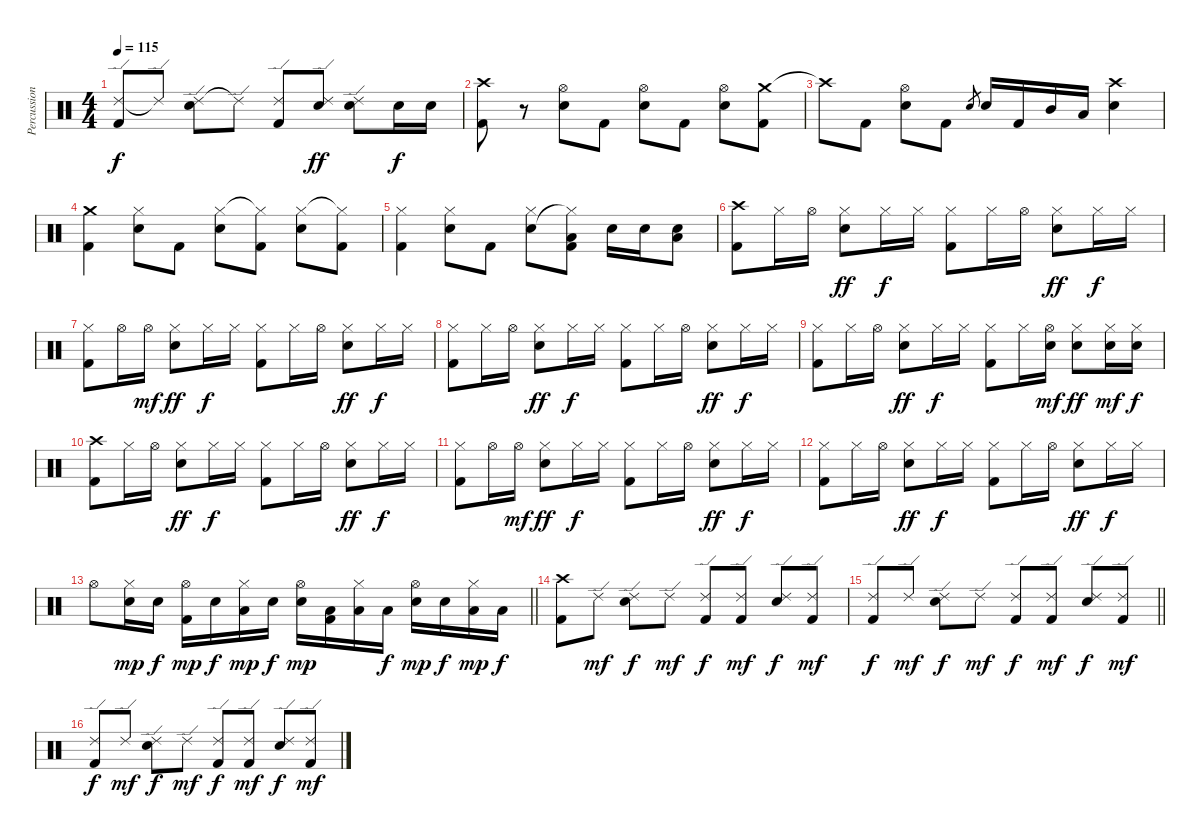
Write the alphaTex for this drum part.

\track ("Percussion" "Percussion") {instrument percussion}
\staff {score}
\articulation defaults
\ts (4 4)
\tempo 115
\clef neutral
\ks c
("Ride (edge) 2" "Kick (hit) 2").8{dy f} "Ride (edge) 2"{t}.8 ("Ride (edge) 2" "Electric Snare (hit)").8 "Ride (edge) 2"{t}.8 ("Ride (edge) 2" "Kick (hit) 2").8 ("Ride (edge) 2" "Electric Snare (hit)").8{dy ff} ("Ride (edge) 2" "Electric Snare (hit)").8 "Electric Snare (hit)".16{dy f} "Electric Snare (hit)".16 |
("Crash high (hit)" "Kick (hit) 2").8 r.8 ("Hi-Hat (open)" "Electric Snare (hit)").8 "Kick (hit) 2".8 ("Hi-Hat (open)" "Electric Snare (hit)").8 "Kick (hit) 2".8 ("Hi-Hat (open)" "Electric Snare (hit)").8 ("Crash medium (hit)" "Kick (hit) 2").8 |
"Crash high (hit)"{t}.8 "Kick (hit) 2".8 ("Hi-Hat (open)" "Electric Snare (hit)").8 "Kick (hit) 2".8 "Electric Snare (hit)".8{gr} "Electric Snare (hit)".16 "Kick (hit) 2".16 "Mid Tom (hit)".16 "Low Floor Tom (hit)".16 ("Crash high (hit)" "Electric Snare (hit)").4 |
("Crash medium (hit)" "Kick (hit) 2").4 ("Hi-Hat (closed)" "Electric Snare (hit)").8 "Kick (hit) 2".8 ("Hi-Hat (closed)" "Electric Snare (hit)").8 ("Hi-Hat (closed)"{t} "Kick (hit) 2").8 ("Hi-Hat (closed)" "Electric Snare (hit)").8 ("Hi-Hat (closed)"{t} "Kick (hit) 2").8 |
("Hi-Hat (closed)" "Kick (hit) 2").4 ("Hi-Hat (closed)" "Electric Snare (hit)").8 "Kick (hit) 2".8 ("Hi-Hat (closed)" "Electric Snare (hit)").8 ("Low Tom (hit)" "Hi-Hat (closed)"{t} "Kick (hit) 2").8 "Electric Snare (hit)".16 "Electric Snare (hit)".16 ("Low Tom (hit)" "Electric Snare (hit)").8 |
("Crash high (hit)" "Kick (hit) 2").8 "Hi-Hat (closed)".16 "Hi-Hat (open)".16 ("Hi-Hat (closed)" "Electric Snare (hit)").8{dy ff} "Hi-Hat (closed)".16{dy f} "Hi-Hat (closed)".16 ("Hi-Hat (closed)" "Kick (hit) 2").8 "Hi-Hat (closed)".16 "Hi-Hat (open)".16 ("Hi-Hat (closed)" "Electric Snare (hit)").8{dy ff} "Hi-Hat (closed)".16{dy f} "Hi-Hat (closed)".16 |
("Hi-Hat (closed)" "Kick (hit) 2").8 "Hi-Hat (open)".16 "Hi-Hat (open)".16{dy mf} ("Hi-Hat (closed)" "Electric Snare (hit)").8{dy ff} "Hi-Hat (closed)".16{dy f} "Hi-Hat (closed)".16 ("Hi-Hat (closed)" "Kick (hit) 2").8 "Hi-Hat (closed)".16 "Hi-Hat (open)".16 ("Hi-Hat (closed)" "Electric Snare (hit)").8{dy ff} "Hi-Hat (closed)".16{dy f} "Hi-Hat (closed)".16 |
("Hi-Hat (closed)" "Kick (hit) 2").8 "Hi-Hat (closed)".16 "Hi-Hat (open)".16 ("Hi-Hat (closed)" "Electric Snare (hit)").8{dy ff} "Hi-Hat (closed)".16{dy f} "Hi-Hat (closed)".16 ("Hi-Hat (closed)" "Kick (hit) 2").8 "Hi-Hat (closed)".16 "Hi-Hat (open)".16 ("Hi-Hat (closed)" "Electric Snare (hit)").8{dy ff} "Hi-Hat (closed)".16{dy f} "Hi-Hat (closed)".16 |
("Hi-Hat (closed)" "Kick (hit) 2").8 "Hi-Hat (closed)".16 "Hi-Hat (open)".16 ("Hi-Hat (closed)" "Electric Snare (hit)").8{dy ff} "Hi-Hat (closed)".16{dy f} "Hi-Hat (closed)".16 ("Hi-Hat (closed)" "Kick (hit) 2").8 "Hi-Hat (closed)".16 ("Hi-Hat (open)" "Electric Snare (hit)").16{dy mf} ("Hi-Hat (closed)" "Electric Snare (hit)").8{dy ff} ("Hi-Hat (closed)" "Electric Snare (hit)").16{dy mf} ("Hi-Hat (closed)" "Electric Snare (hit)").16{dy f} |
("Crash high (hit)" "Kick (hit) 2").8 "Hi-Hat (closed)".16 "Hi-Hat (open)".16 ("Hi-Hat (closed)" "Electric Snare (hit)").8{dy ff} "Hi-Hat (closed)".16{dy f} "Hi-Hat (closed)".16 ("Hi-Hat (closed)" "Kick (hit) 2").8 "Hi-Hat (closed)".16 "Hi-Hat (open)".16 ("Hi-Hat (closed)" "Electric Snare (hit)").8{dy ff} "Hi-Hat (closed)".16{dy f} "Hi-Hat (closed)".16 |
("Hi-Hat (closed)" "Kick (hit) 2").8 "Hi-Hat (open)".16 "Hi-Hat (open)".16{dy mf} ("Hi-Hat (closed)" "Electric Snare (hit)").8{dy ff} "Hi-Hat (closed)".16{dy f} "Hi-Hat (closed)".16 ("Hi-Hat (closed)" "Kick (hit) 2").8 "Hi-Hat (closed)".16 "Hi-Hat (open)".16 ("Hi-Hat (closed)" "Electric Snare (hit)").8{dy ff} "Hi-Hat (closed)".16{dy f} "Hi-Hat (closed)".16 |
("Hi-Hat (closed)" "Kick (hit) 2").8 "Hi-Hat (closed)".16 "Hi-Hat (open)".16 ("Hi-Hat (closed)" "Electric Snare (hit)").8{dy ff} "Hi-Hat (closed)".16{dy f} "Hi-Hat (closed)".16 ("Hi-Hat (closed)" "Kick (hit) 2").8 "Hi-Hat (closed)".16 "Hi-Hat (open)".16 ("Hi-Hat (closed)" "Electric Snare (hit)").8{dy ff} "Hi-Hat (closed)".16{dy f} "Hi-Hat (closed)".16 |
\barLineRight lightlight "Hi-Hat (open)".8
("Hi-Hat (closed)" "Electric Snare (hit)").16{dy mp} "Electric Snare (hit)".16{dy f} ("Hi-Hat (open)" "Kick (hit) 2").16{dy mp} "Electric Snare (hit)".16{dy f} ("Low Tom (hit)" "Hi-Hat (closed)").16{dy mp} "Electric Snare (hit)".16{dy f} ("Hi-Hat (open)" "Electric Snare (hit)").16{dy mp} ("Low Floor Tom (hit)" "Kick (hit) 2").16 ("Low Tom (hit)" "Hi-Hat (closed)").16 "Low Floor Tom (hit)".16{dy f} ("Hi-Hat (open)" "Electric Snare (hit)").16{dy mp} "Electric Snare (hit)".16{dy f} ("Low Floor Tom (hit)" "Hi-Hat (closed)").16{dy mp} "Low Tom (hit)".16{dy f} |
("Crash high (hit)" "Kick (hit) 2").8 "Ride (edge) 2".8{dy mf} ("Ride (edge) 2" "Electric Snare (hit)").8{dy f} "Ride (edge) 2".8{dy mf} ("Ride (edge) 2" "Kick (hit) 2").8{dy f} ("Ride (edge) 2" "Kick (hit) 2").8{dy mf} ("Ride (edge) 2" "Electric Snare (hit)").8{dy f} ("Ride (edge) 2" "Kick (hit) 2").8{dy mf} |
\barLineRight lightlight
("Ride (edge) 2" "Kick (hit) 2").8{dy f} "Ride (edge) 2".8{dy mf} ("Ride (edge) 2" "Electric Snare (hit)").8{dy f} "Ride (edge) 2".8{dy mf} ("Ride (edge) 2" "Kick (hit) 2").8{dy f} ("Ride (edge) 2" "Kick (hit) 2").8{dy mf} ("Ride (edge) 2" "Electric Snare (hit)").8{dy f} ("Ride (edge) 2" "Kick (hit) 2").8{dy mf} |
("Ride (edge) 2" "Kick (hit) 2").8{dy f} "Ride (edge) 2".8{dy mf} ("Ride (edge) 2" "Electric Snare (hit)").8{dy f} "Ride (edge) 2".8{dy mf} ("Ride (edge) 2" "Kick (hit) 2").8{dy f} ("Ride (edge) 2" "Kick (hit) 2").8{dy mf} ("Ride (edge) 2" "Electric Snare (hit)").8{dy f} ("Ride (edge) 2" "Kick (hit) 2").8{dy mf}
